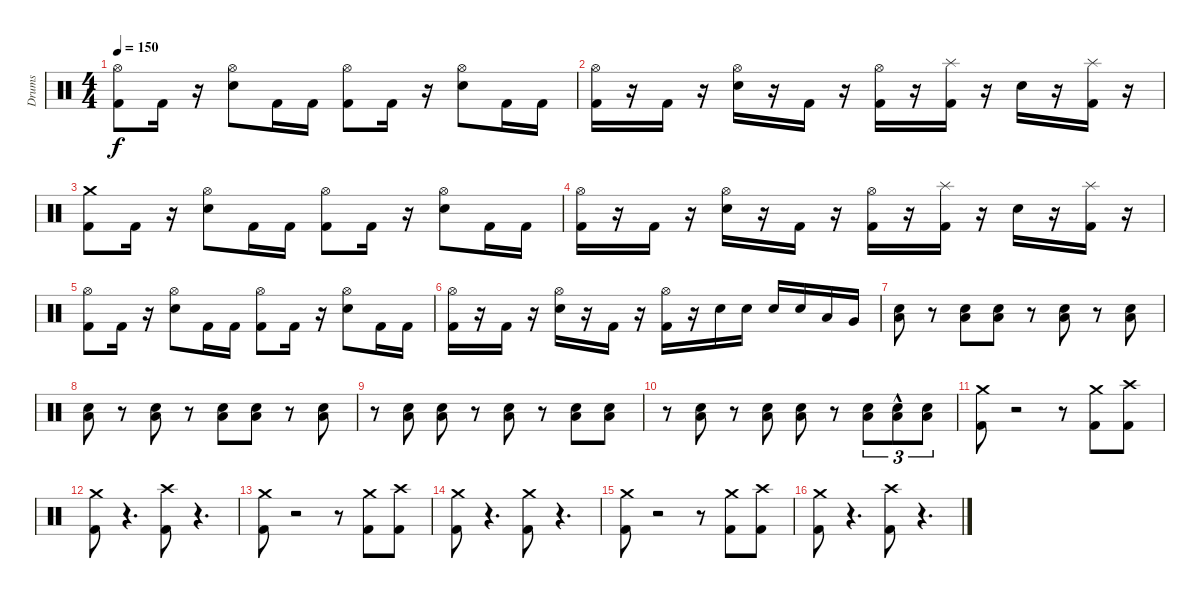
\track ("Drums" "Drums") {instrument percussion}
\staff {score}
\articulation defaults
\ts (4 4)
\tempo 150
\clef neutral
\ks c
("Hi-Hat (open)" "Kick (hit) 2").8{dy f} "Kick (hit) 2".16 r.16 ("Hi-Hat (open)" "Electric Snare (hit)").8 "Kick (hit) 2".16 "Kick (hit) 2".16 ("Hi-Hat (open)" "Kick (hit) 2").8 "Kick (hit) 2".16 r.16 ("Hi-Hat (open)" "Electric Snare (hit)").8 "Kick (hit) 2".16 "Kick (hit) 2".16 |
("Hi-Hat (open)" "Kick (hit) 2").16 r.16 "Kick (hit) 2".16 r.16 ("Hi-Hat (open)" "Electric Snare (hit)").16 r.16 "Kick (hit) 2".16 r.16 ("Hi-Hat (open)" "Kick (hit) 2").16 r.16 ("Splash (hit)" "Kick (hit) 2").16 r.16 "Electric Snare (hit)".16 r.16 ("Splash (hit)" "Kick (hit) 2").16 r.16 |
("Crash medium (hit)" "Kick (hit) 2").8 "Kick (hit) 2".16 r.16 ("Hi-Hat (open)" "Electric Snare (hit)").8 "Kick (hit) 2".16 "Kick (hit) 2".16 ("Hi-Hat (open)" "Kick (hit) 2").8 "Kick (hit) 2".16 r.16 ("Hi-Hat (open)" "Electric Snare (hit)").8 "Kick (hit) 2".16 "Kick (hit) 2".16 |
("Hi-Hat (open)" "Kick (hit) 2").16 r.16 "Kick (hit) 2".16 r.16 ("Hi-Hat (open)" "Electric Snare (hit)").16 r.16 "Kick (hit) 2".16 r.16 ("Hi-Hat (open)" "Kick (hit) 2").16 r.16 ("Splash (hit)" "Kick (hit) 2").16 r.16 "Electric Snare (hit)".16 r.16 ("Splash (hit)" "Kick (hit) 2").16 r.16 |
("Hi-Hat (open)" "Kick (hit) 2").8 "Kick (hit) 2".16 r.16 ("Hi-Hat (open)" "Electric Snare (hit)").8 "Kick (hit) 2".16 "Kick (hit) 2".16 ("Hi-Hat (open)" "Kick (hit) 2").8 "Kick (hit) 2".16 r.16 ("Hi-Hat (open)" "Electric Snare (hit)").8 "Kick (hit) 2".16 "Kick (hit) 2".16 |
("Hi-Hat (open)" "Kick (hit) 2").16 r.16 "Kick (hit) 2".16 r.16 ("Hi-Hat (open)" "Electric Snare (hit)").16 r.16 "Kick (hit) 2".16 r.16 ("Hi-Hat (open)" "Kick (hit) 2").16 r.16 "Electric Snare (hit)".16 "Electric Snare (hit)".16 "Electric Snare (hit)".16 "Electric Snare (hit)".16 "Low Tom (hit)".16 "Very Low Tom (hit)".16 |
("Low Tom (hit)" "Electric Snare (hit)").8 r.8 ("Low Tom (hit)" "Electric Snare (hit)").8 ("Low Tom (hit)" "Electric Snare (hit)").8 r.8 ("Low Tom (hit)" "Electric Snare (hit)").8 r.8 ("Low Tom (hit)" "Electric Snare (hit)").8 |
("Low Tom (hit)" "Electric Snare (hit)").8 r.8 ("Low Tom (hit)" "Electric Snare (hit)").8 r.8 ("Low Tom (hit)" "Electric Snare (hit)").8 ("Low Tom (hit)" "Electric Snare (hit)").8 r.8 ("Low Tom (hit)" "Electric Snare (hit)").8 |
r.8 ("Low Tom (hit)" "Electric Snare (hit)").8 ("Low Tom (hit)" "Electric Snare (hit)").8 r.8 ("Low Tom (hit)" "Electric Snare (hit)").8 r.8 ("Low Tom (hit)" "Electric Snare (hit)").8 ("Low Tom (hit)" "Electric Snare (hit)").8 |
r.8 ("Low Tom (hit)" "Electric Snare (hit)").8 r.8 ("Low Tom (hit)" "Electric Snare (hit)").8 ("Low Tom (hit)" "Electric Snare (hit)").8 r.8 ("Low Tom (hit)" "Electric Snare (hit)").8{tu (3 2)} ("Low Tom (hit)" "Electric Snare (hit)"{hac}).8{tu (3 2)} ("Low Tom (hit)" "Electric Snare (hit)").8{tu (3 2)} |
("Crash medium (hit)" "Kick (hit) 2").8 r.2 r.8 ("Crash medium (hit)" "Kick (hit) 2").8 ("Crash high (hit)" "Kick (hit) 2").8 |
("Crash medium (hit)" "Kick (hit) 2").8 r.4{d} ("Crash high (hit)" "Kick (hit) 2").8 r.4{d} |
("Crash medium (hit)" "Kick (hit) 2").8 r.2 r.8 ("Crash medium (hit)" "Kick (hit) 2").8 ("Crash high (hit)" "Kick (hit) 2").8 |
("Crash medium (hit)" "Kick (hit) 2").8 r.4{d} ("Crash medium (hit)" "Kick (hit) 2").8 r.4{d} |
("Crash medium (hit)" "Kick (hit) 2").8 r.2 r.8 ("Crash medium (hit)" "Kick (hit) 2").8 ("Crash high (hit)" "Kick (hit) 2").8 |
("Crash medium (hit)" "Kick (hit) 2").8 r.4{d} ("Crash high (hit)" "Kick (hit) 2").8 r.4{d}
